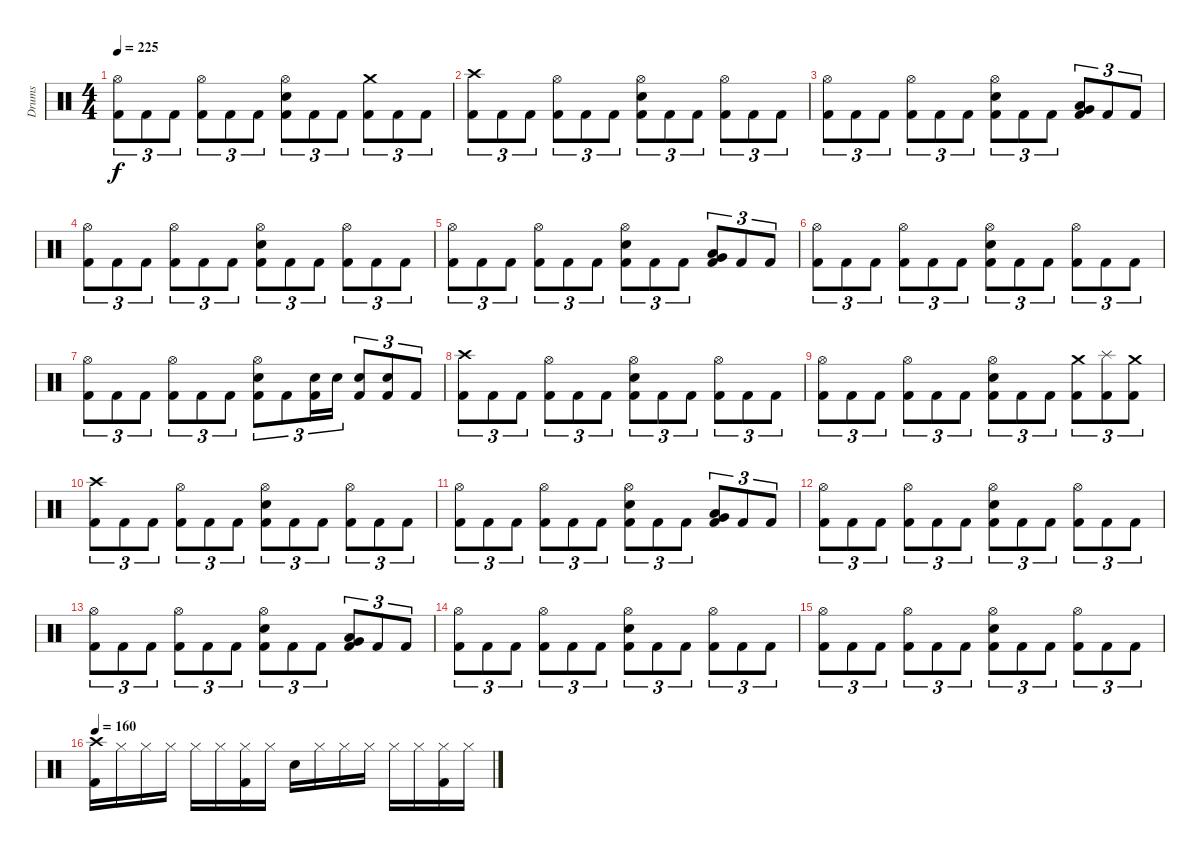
\track ("Drums" "Drums") {instrument percussion}
\staff {score}
\articulation defaults
\ts (4 4)
\tempo 225
\clef neutral
\ks c
("Hi-Hat (open)" "Kick (hit) 2").8{tu (3 2) dy f} "Kick (hit) 2".8{tu (3 2)} "Kick (hit) 2".8{tu (3 2)} ("Hi-Hat (open)" "Kick (hit) 2").8{tu (3 2)} "Kick (hit) 2".8{tu (3 2)} "Kick (hit) 2".8{tu (3 2)} ("Hi-Hat (open)" "Electric Snare (hit)" "Kick (hit) 2").8{tu (3 2)} "Kick (hit) 2".8{tu (3 2)} "Kick (hit) 2".8{tu (3 2)} ("Crash medium (hit)" "Kick (hit) 2").8{tu (3 2)} "Kick (hit) 2".8{tu (3 2)} "Kick (hit) 2".8{tu (3 2)} |
("Crash high (hit)" "Kick (hit) 2").8{tu (3 2)} "Kick (hit) 2".8{tu (3 2)} "Kick (hit) 2".8{tu (3 2)} ("Hi-Hat (open)" "Kick (hit) 2").8{tu (3 2)} "Kick (hit) 2".8{tu (3 2)} "Kick (hit) 2".8{tu (3 2)} ("Hi-Hat (open)" "Electric Snare (hit)" "Kick (hit) 2").8{tu (3 2)} "Kick (hit) 2".8{tu (3 2)} "Kick (hit) 2".8{tu (3 2)} ("Hi-Hat (open)" "Kick (hit) 2").8{tu (3 2)} "Kick (hit) 2".8{tu (3 2)} "Kick (hit) 2".8{tu (3 2)} |
("Hi-Hat (open)" "Kick (hit) 2").8{tu (3 2)} "Kick (hit) 2".8{tu (3 2)} "Kick (hit) 2".8{tu (3 2)} ("Hi-Hat (open)" "Kick (hit) 2").8{tu (3 2)} "Kick (hit) 2".8{tu (3 2)} "Kick (hit) 2".8{tu (3 2)} ("Hi-Hat (open)" "Electric Snare (hit)" "Kick (hit) 2").8{tu (3 2)} "Kick (hit) 2".8{tu (3 2)} "Kick (hit) 2".8{tu (3 2)} ("Low Tom (hit)" "Very Low Tom (hit)" "Kick (hit) 2").8{tu (3 2)} "Kick (hit) 2".8{tu (3 2)} "Kick (hit) 2".8{tu (3 2)} |
("Hi-Hat (open)" "Kick (hit) 2").8{tu (3 2)} "Kick (hit) 2".8{tu (3 2)} "Kick (hit) 2".8{tu (3 2)} ("Hi-Hat (open)" "Kick (hit) 2").8{tu (3 2)} "Kick (hit) 2".8{tu (3 2)} "Kick (hit) 2".8{tu (3 2)} ("Hi-Hat (open)" "Electric Snare (hit)" "Kick (hit) 2").8{tu (3 2)} "Kick (hit) 2".8{tu (3 2)} "Kick (hit) 2".8{tu (3 2)} ("Hi-Hat (open)" "Kick (hit) 2").8{tu (3 2)} "Kick (hit) 2".8{tu (3 2)} "Kick (hit) 2".8{tu (3 2)} |
("Hi-Hat (open)" "Kick (hit) 2").8{tu (3 2)} "Kick (hit) 2".8{tu (3 2)} "Kick (hit) 2".8{tu (3 2)} ("Hi-Hat (open)" "Kick (hit) 2").8{tu (3 2)} "Kick (hit) 2".8{tu (3 2)} "Kick (hit) 2".8{tu (3 2)} ("Hi-Hat (open)" "Electric Snare (hit)" "Kick (hit) 2").8{tu (3 2)} "Kick (hit) 2".8{tu (3 2)} "Kick (hit) 2".8{tu (3 2)} ("Low Tom (hit)" "Very Low Tom (hit)" "Kick (hit) 2").8{tu (3 2)} "Kick (hit) 2".8{tu (3 2)} "Kick (hit) 2".8{tu (3 2)} |
("Hi-Hat (open)" "Kick (hit) 2").8{tu (3 2)} "Kick (hit) 2".8{tu (3 2)} "Kick (hit) 2".8{tu (3 2)} ("Hi-Hat (open)" "Kick (hit) 2").8{tu (3 2)} "Kick (hit) 2".8{tu (3 2)} "Kick (hit) 2".8{tu (3 2)} ("Hi-Hat (open)" "Electric Snare (hit)" "Kick (hit) 2").8{tu (3 2)} "Kick (hit) 2".8{tu (3 2)} "Kick (hit) 2".8{tu (3 2)} ("Hi-Hat (open)" "Kick (hit) 2").8{tu (3 2)} "Kick (hit) 2".8{tu (3 2)} "Kick (hit) 2".8{tu (3 2)} |
("Hi-Hat (open)" "Kick (hit) 2").8{tu (3 2)} "Kick (hit) 2".8{tu (3 2)} "Kick (hit) 2".8{tu (3 2)} ("Hi-Hat (open)" "Kick (hit) 2").8{tu (3 2)} "Kick (hit) 2".8{tu (3 2)} "Kick (hit) 2".8{tu (3 2)} ("Hi-Hat (open)" "Electric Snare (hit)" "Kick (hit) 2").8{tu (3 2)} "Kick (hit) 2".8{tu (3 2)} ("Electric Snare (hit)" "Kick (hit) 2").16{tu (3 2)} "Electric Snare (hit)".16{tu (3 2)} ("Electric Snare (hit)" "Kick (hit) 2").8{tu (3 2)} ("Electric Snare (hit)" "Kick (hit) 2").8{tu (3 2)} "Kick (hit) 2".8{tu (3 2)} |
("Crash high (hit)" "Kick (hit) 2").8{tu (3 2)} "Kick (hit) 2".8{tu (3 2)} "Kick (hit) 2".8{tu (3 2)} ("Hi-Hat (open)" "Kick (hit) 2").8{tu (3 2)} "Kick (hit) 2".8{tu (3 2)} "Kick (hit) 2".8{tu (3 2)} ("Hi-Hat (open)" "Electric Snare (hit)" "Kick (hit) 2").8{tu (3 2)} "Kick (hit) 2".8{tu (3 2)} "Kick (hit) 2".8{tu (3 2)} ("Hi-Hat (open)" "Kick (hit) 2").8{tu (3 2)} "Kick (hit) 2".8{tu (3 2)} "Kick (hit) 2".8{tu (3 2)} |
("Hi-Hat (open)" "Kick (hit) 2").8{tu (3 2)} "Kick (hit) 2".8{tu (3 2)} "Kick (hit) 2".8{tu (3 2)} ("Hi-Hat (open)" "Kick (hit) 2").8{tu (3 2)} "Kick (hit) 2".8{tu (3 2)} "Kick (hit) 2".8{tu (3 2)} ("Hi-Hat (open)" "Electric Snare (hit)" "Kick (hit) 2").8{tu (3 2)} "Kick (hit) 2".8{tu (3 2)} "Kick (hit) 2".8{tu (3 2)} ("Crash medium (hit)" "Kick (hit) 2").8{tu (3 2)} ("Splash (hit)" "Kick (hit) 2").8{tu (3 2)} ("Crash medium (hit)" "Kick (hit) 2").8{tu (3 2)} |
("Crash high (hit)" "Kick (hit) 2").8{tu (3 2)} "Kick (hit) 2".8{tu (3 2)} "Kick (hit) 2".8{tu (3 2)} ("Hi-Hat (open)" "Kick (hit) 2").8{tu (3 2)} "Kick (hit) 2".8{tu (3 2)} "Kick (hit) 2".8{tu (3 2)} ("Hi-Hat (open)" "Electric Snare (hit)" "Kick (hit) 2").8{tu (3 2)} "Kick (hit) 2".8{tu (3 2)} "Kick (hit) 2".8{tu (3 2)} ("Hi-Hat (open)" "Kick (hit) 2").8{tu (3 2)} "Kick (hit) 2".8{tu (3 2)} "Kick (hit) 2".8{tu (3 2)} |
("Hi-Hat (open)" "Kick (hit) 2").8{tu (3 2)} "Kick (hit) 2".8{tu (3 2)} "Kick (hit) 2".8{tu (3 2)} ("Hi-Hat (open)" "Kick (hit) 2").8{tu (3 2)} "Kick (hit) 2".8{tu (3 2)} "Kick (hit) 2".8{tu (3 2)} ("Hi-Hat (open)" "Electric Snare (hit)" "Kick (hit) 2").8{tu (3 2)} "Kick (hit) 2".8{tu (3 2)} "Kick (hit) 2".8{tu (3 2)} ("Low Tom (hit)" "Very Low Tom (hit)" "Kick (hit) 2").8{tu (3 2)} "Kick (hit) 2".8{tu (3 2)} "Kick (hit) 2".8{tu (3 2)} |
("Hi-Hat (open)" "Kick (hit) 2").8{tu (3 2)} "Kick (hit) 2".8{tu (3 2)} "Kick (hit) 2".8{tu (3 2)} ("Hi-Hat (open)" "Kick (hit) 2").8{tu (3 2)} "Kick (hit) 2".8{tu (3 2)} "Kick (hit) 2".8{tu (3 2)} ("Hi-Hat (open)" "Electric Snare (hit)" "Kick (hit) 2").8{tu (3 2)} "Kick (hit) 2".8{tu (3 2)} "Kick (hit) 2".8{tu (3 2)} ("Hi-Hat (open)" "Kick (hit) 2").8{tu (3 2)} "Kick (hit) 2".8{tu (3 2)} "Kick (hit) 2".8{tu (3 2)} |
("Hi-Hat (open)" "Kick (hit) 2").8{tu (3 2)} "Kick (hit) 2".8{tu (3 2)} "Kick (hit) 2".8{tu (3 2)} ("Hi-Hat (open)" "Kick (hit) 2").8{tu (3 2)} "Kick (hit) 2".8{tu (3 2)} "Kick (hit) 2".8{tu (3 2)} ("Hi-Hat (open)" "Electric Snare (hit)" "Kick (hit) 2").8{tu (3 2)} "Kick (hit) 2".8{tu (3 2)} "Kick (hit) 2".8{tu (3 2)} ("Low Tom (hit)" "Very Low Tom (hit)" "Kick (hit) 2").8{tu (3 2)} "Kick (hit) 2".8{tu (3 2)} "Kick (hit) 2".8{tu (3 2)} |
("Hi-Hat (open)" "Kick (hit) 2").8{tu (3 2)} "Kick (hit) 2".8{tu (3 2)} "Kick (hit) 2".8{tu (3 2)} ("Hi-Hat (open)" "Kick (hit) 2").8{tu (3 2)} "Kick (hit) 2".8{tu (3 2)} "Kick (hit) 2".8{tu (3 2)} ("Hi-Hat (open)" "Electric Snare (hit)" "Kick (hit) 2").8{tu (3 2)} "Kick (hit) 2".8{tu (3 2)} "Kick (hit) 2".8{tu (3 2)} ("Hi-Hat (open)" "Kick (hit) 2").8{tu (3 2)} "Kick (hit) 2".8{tu (3 2)} "Kick (hit) 2".8{tu (3 2)} |
("Hi-Hat (open)" "Kick (hit) 2").8{tu (3 2)} "Kick (hit) 2".8{tu (3 2)} "Kick (hit) 2".8{tu (3 2)} ("Hi-Hat (open)" "Kick (hit) 2").8{tu (3 2)} "Kick (hit) 2".8{tu (3 2)} "Kick (hit) 2".8{tu (3 2)} ("Hi-Hat (open)" "Electric Snare (hit)" "Kick (hit) 2").8{tu (3 2)} "Kick (hit) 2".8{tu (3 2)} "Kick (hit) 2".8{tu (3 2)} ("Hi-Hat (open)" "Kick (hit) 2").8{tu (3 2)} "Kick (hit) 2".8{tu (3 2)} "Kick (hit) 2".8{tu (3 2)} |
\tempo 160
("Crash high (hit)" "Kick (hit) 2").16 "Hi-Hat (closed)".16 "Hi-Hat (closed)".16 "Hi-Hat (closed)".16 "Hi-Hat (closed)".16 "Hi-Hat (closed)".16 ("Hi-Hat (closed)" "Kick (hit) 2").16 "Hi-Hat (closed)".16 "Electric Snare (hit)".16 "Hi-Hat (closed)".16 "Hi-Hat (closed)".16 "Hi-Hat (closed)".16 "Hi-Hat (closed)".16 "Hi-Hat (closed)".16 ("Hi-Hat (closed)" "Kick (hit) 2").16 "Hi-Hat (closed)".16
